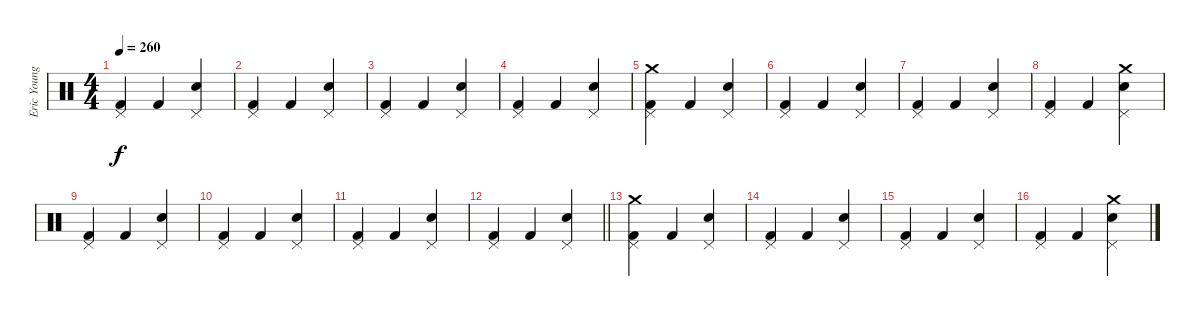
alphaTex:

\track ("Eric Young (Drums)" "Eric Young") {instrument percussion}
\staff {score}
\articulation defaults
\ts (4 4)
\tempo 260
\clef neutral
\ks c
("Pedal Hi-Hat (hit)" "Kick (hit) 2").4{dy f} "Kick (hit) 2".4 ("Pedal Hi-Hat (hit)" "Snare (hit) 2").4 |
("Pedal Hi-Hat (hit)" "Kick (hit) 2").4 "Kick (hit) 2".4 ("Pedal Hi-Hat (hit)" "Snare (hit) 2").4 |
("Pedal Hi-Hat (hit)" "Kick (hit) 2").4 "Kick (hit) 2".4 ("Pedal Hi-Hat (hit)" "Snare (hit) 2").4 |
("Pedal Hi-Hat (hit)" "Kick (hit) 2").4 "Kick (hit) 2".4 ("Pedal Hi-Hat (hit)" "Snare (hit) 2").4 |
("Pedal Hi-Hat (hit)" "Kick (hit) 2" "Crash medium (hit)").4 "Kick (hit) 2".4 ("Pedal Hi-Hat (hit)" "Snare (hit) 2").4 |
("Pedal Hi-Hat (hit)" "Kick (hit) 2").4 "Kick (hit) 2".4 ("Pedal Hi-Hat (hit)" "Snare (hit) 2").4 |
("Pedal Hi-Hat (hit)" "Kick (hit) 2").4 "Kick (hit) 2".4 ("Pedal Hi-Hat (hit)" "Snare (hit) 2").4 |
("Pedal Hi-Hat (hit)" "Kick (hit) 2").4 "Kick (hit) 2".4 ("Pedal Hi-Hat (hit)" "Snare (hit) 2" "Crash medium (hit)").4 |
("Pedal Hi-Hat (hit)" "Kick (hit) 2").4 "Kick (hit) 2".4 ("Pedal Hi-Hat (hit)" "Snare (hit) 2").4 |
("Pedal Hi-Hat (hit)" "Kick (hit) 2").4 "Kick (hit) 2".4 ("Pedal Hi-Hat (hit)" "Snare (hit) 2").4 |
("Pedal Hi-Hat (hit)" "Kick (hit) 2").4 "Kick (hit) 2".4 ("Pedal Hi-Hat (hit)" "Snare (hit) 2").4 |
\barLineRight lightlight
("Pedal Hi-Hat (hit)" "Kick (hit) 2").4 "Kick (hit) 2".4 ("Pedal Hi-Hat (hit)" "Snare (hit) 2").4 |
("Pedal Hi-Hat (hit)" "Kick (hit) 2" "Crash medium (hit)").4 "Kick (hit) 2".4 ("Pedal Hi-Hat (hit)" "Snare (hit) 2").4 |
("Pedal Hi-Hat (hit)" "Kick (hit) 2").4 "Kick (hit) 2".4 ("Pedal Hi-Hat (hit)" "Snare (hit) 2").4 |
("Pedal Hi-Hat (hit)" "Kick (hit) 2").4 "Kick (hit) 2".4 ("Pedal Hi-Hat (hit)" "Snare (hit) 2").4 |
("Pedal Hi-Hat (hit)" "Kick (hit) 2").4 "Kick (hit) 2".4 ("Pedal Hi-Hat (hit)" "Snare (hit) 2" "Crash medium (hit)").4
